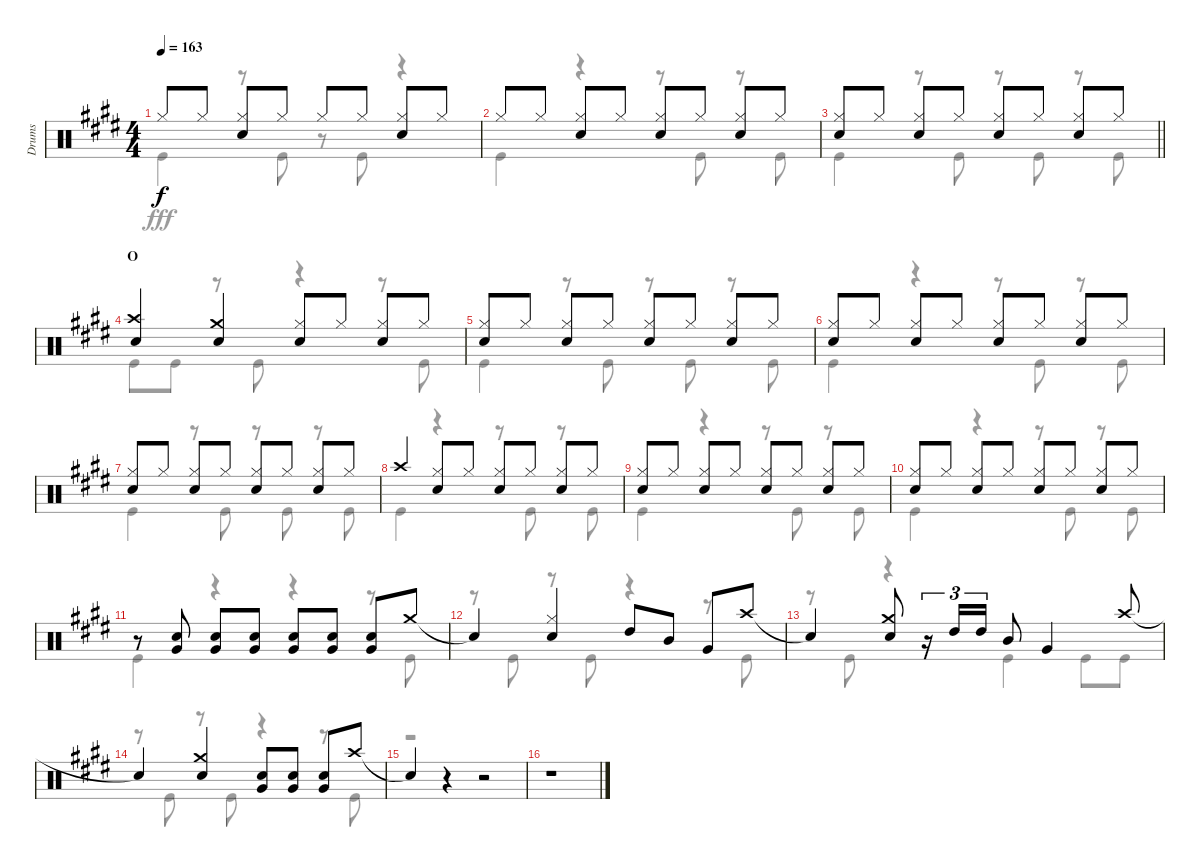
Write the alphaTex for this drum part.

\track ("Drums" "Drums") {instrument percussion}
\staff {score}
\articulation defaults
\voice
\ts (4 4)
\tempo 163
\clef neutral
\ks e "Hi-Hat (closed)".8{dy f} "Hi-Hat (closed)".8
("Hi-Hat (closed)" "Snare (hit) 2").8 "Hi-Hat (closed)".8 "Hi-Hat (closed)".8 "Hi-Hat (closed)".8 ("Hi-Hat (closed)" "Snare (hit) 2").8 "Hi-Hat (closed)".8 |
"Hi-Hat (closed)".8 "Hi-Hat (closed)".8 ("Hi-Hat (closed)" "Snare (hit) 2").8 "Hi-Hat (closed)".8 ("Hi-Hat (closed)" "Snare (hit) 2").8 "Hi-Hat (closed)".8 ("Hi-Hat (closed)" "Snare (hit) 2").8 "Hi-Hat (closed)".8 |
\barLineRight lightlight
("Hi-Hat (closed)" "Snare (hit) 2").8 "Hi-Hat (closed)".8 ("Hi-Hat (closed)" "Snare (hit) 2").8 "Hi-Hat (closed)".8 ("Hi-Hat (closed)" "Snare (hit) 2").8 "Hi-Hat (closed)".8 ("Hi-Hat (closed)" "Snare (hit) 2").8 "Hi-Hat (closed)".8 |
\section ("" "O")
("Crash high (hit)" "Snare (hit) 2").4 ("Crash medium (hit)" "Snare (hit) 2").4 ("Hi-Hat (closed)" "Snare (hit) 2").8 "Hi-Hat (closed)".8 ("Hi-Hat (closed)" "Snare (hit) 2").8 "Hi-Hat (closed)".8 |
("Hi-Hat (closed)" "Snare (hit) 2").8 "Hi-Hat (closed)".8 ("Hi-Hat (closed)" "Snare (hit) 2").8 "Hi-Hat (closed)".8 ("Hi-Hat (closed)" "Snare (hit) 2").8 "Hi-Hat (closed)".8 ("Hi-Hat (closed)" "Snare (hit) 2").8 "Hi-Hat (closed)".8 |
("Hi-Hat (closed)" "Snare (hit) 2").8 "Hi-Hat (closed)".8 ("Hi-Hat (closed)" "Snare (hit) 2").8 "Hi-Hat (closed)".8 ("Hi-Hat (closed)" "Snare (hit) 2").8 "Hi-Hat (closed)".8 ("Hi-Hat (closed)" "Snare (hit) 2").8 "Hi-Hat (closed)".8 |
("Hi-Hat (closed)" "Snare (hit) 2").8 "Hi-Hat (closed)".8 ("Hi-Hat (closed)" "Snare (hit) 2").8 "Hi-Hat (closed)".8 ("Hi-Hat (closed)" "Snare (hit) 2").8 "Hi-Hat (closed)".8 ("Hi-Hat (closed)" "Snare (hit) 2").8 "Hi-Hat (closed)".8 |
"Crash high (hit)".4 ("Hi-Hat (closed)" "Snare (hit) 2").8 "Hi-Hat (closed)".8 ("Hi-Hat (closed)" "Snare (hit) 2").8 "Hi-Hat (closed)".8 ("Hi-Hat (closed)" "Snare (hit) 2").8 "Hi-Hat (closed)".8 |
("Hi-Hat (closed)" "Snare (hit) 2").8 "Hi-Hat (closed)".8 ("Hi-Hat (closed)" "Snare (hit) 2").8 "Hi-Hat (closed)".8 ("Hi-Hat (closed)" "Snare (hit) 2").8 "Hi-Hat (closed)".8 ("Hi-Hat (closed)" "Snare (hit) 2").8 "Hi-Hat (closed)".8 |
("Hi-Hat (closed)" "Snare (hit) 2").8 "Hi-Hat (closed)".8 ("Hi-Hat (closed)" "Snare (hit) 2").8 "Hi-Hat (closed)".8 ("Hi-Hat (closed)" "Snare (hit) 2").8 "Hi-Hat (closed)".8 ("Hi-Hat (closed)" "Snare (hit) 2").8 "Hi-Hat (closed)".8 |
r.8 ("Snare (hit) 2" "Very Low Tom (hit)").8 ("Snare (hit) 2" "Very Low Tom (hit)").8 ("Snare (hit) 2" "Very Low Tom (hit)").8 ("Snare (hit) 2" "Very Low Tom (hit)").8 ("Snare (hit) 2" "Very Low Tom (hit)").8 ("Snare (hit) 2" "Very Low Tom (hit)").8 "Crash medium (hit)".8 |
"Snare (hit)"{t}.4 ("Hi-Hat (closed)" "Snare (hit) 2").4 "High Tom (hit)".8 "Mid Tom (hit)".8 "Very Low Tom (hit)".8 "Crash high (hit)".8 |
"Snare (hit)"{t}.4 ("Crash medium (hit)" "Snare (hit) 2").8 r.16{tu (3 2)} "High Tom (hit)".16{tu (3 2)} "High Tom (hit)".16{tu (3 2)} "Mid Tom (hit)".8 "Very Low Tom (hit)".4 "Crash high (hit)".8 |
"Snare (hit)"{t}.4 ("Crash medium (hit)" "Snare (hit) 2").4 ("Snare (hit) 2" "Very Low Tom (hit)").8 ("Snare (hit) 2" "Very Low Tom (hit)").8 ("Snare (hit) 2" "Very Low Tom (hit)").8 "Crash high (hit)".8 |
"Snare (hit)"{t}.4 r.4 r.2 |
r.1
\voice
\clef neutral
\ottava regular
\simile none
\ks e "Kick (hit)".4{dy fff}
r.8 "Kick (hit)".8 r.8 "Kick (hit)".8 r.4 |
"Kick (hit)".4 r.4 r.8 "Kick (hit)".8 r.8 "Kick (hit)".8 |
\barLineRight lightlight "Kick (hit)".4
r.8 "Kick (hit)".8 r.8 "Kick (hit)".8 r.8 "Kick (hit)".8 |
"Kick (hit)".8 "Kick (hit)".8 r.8 "Kick (hit)".8 r.4 r.8 "Kick (hit)".8 |
"Kick (hit)".4 r.8 "Kick (hit)".8 r.8 "Kick (hit)".8 r.8 "Kick (hit)".8 |
"Kick (hit)".4 r.4 r.8 "Kick (hit)".8 r.8 "Kick (hit)".8 |
"Kick (hit)".4 r.8 "Kick (hit)".8 r.8 "Kick (hit)".8 r.8 "Kick (hit)".8 |
"Kick (hit)".4 r.4 r.8 "Kick (hit)".8 r.8 "Kick (hit)".8 |
"Kick (hit)".4 r.4 r.8 "Kick (hit)".8 r.8 "Kick (hit)".8 |
"Kick (hit)".4 r.4 r.8 "Kick (hit)".8 r.8 "Kick (hit)".8 |
"Kick (hit)".4 r.4 r.4 r.8 "Kick (hit)".8 |
r.8 "Kick (hit)".8 r.8 "Kick (hit)".8 r.4 r.8 "Kick (hit)".8 |
r.8 "Kick (hit)".8 r.4 "Kick (hit)".4 "Kick (hit)".8 "Kick (hit)".8 |
r.8 "Kick (hit)".8 r.8 "Kick (hit)".8 r.4 r.8 "Kick (hit)".8 |
r.1 |
r.1
